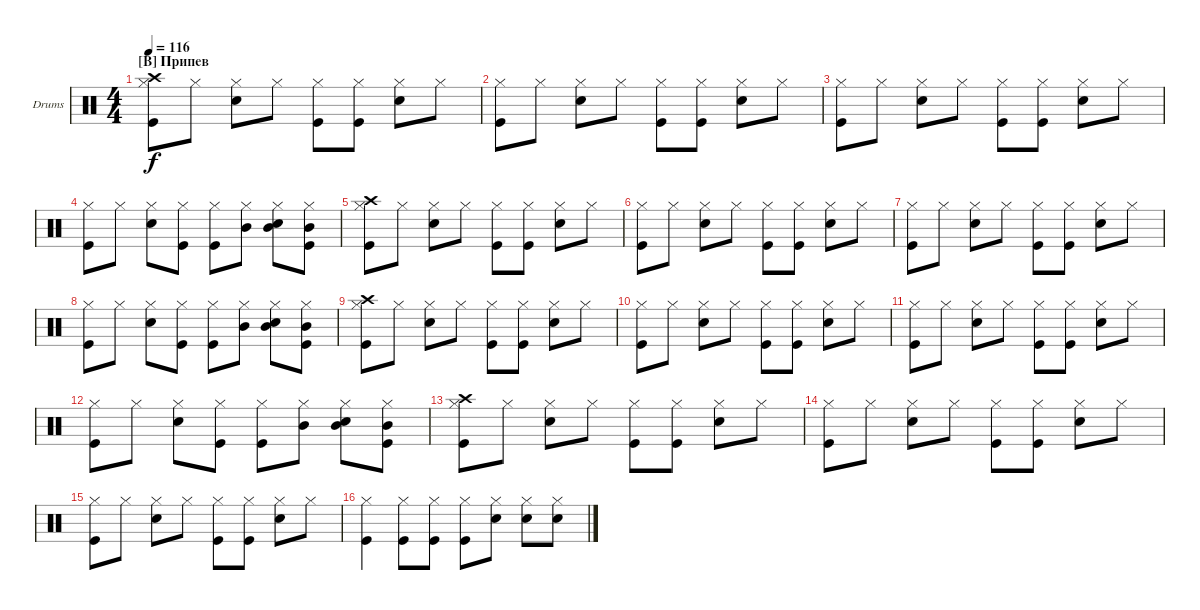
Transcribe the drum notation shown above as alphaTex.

\defaultSystemsLayout 4
\bracketExtendMode groupsimilarinstruments
\firstSystemTrackNameOrientation horizontal
\otherSystemsTrackNameOrientation horizontal
\track ("Drumkit" "Drums") {instrument percussion}
\staff {score}
\articulation defaults
\ts (4 4)
\section ("B" "Припев")
\tempo 116
\clef neutral
\ks c
("Hi-Hat (closed)" "Crash high (hit)" "Kick (hit)").8{dy f} "Hi-Hat (closed)".8 ("Hi-Hat (closed)" "Snare (hit) 2").8 "Hi-Hat (closed)".8 ("Hi-Hat (closed)" "Kick (hit)").8 ("Hi-Hat (closed)" "Kick (hit)").8 ("Hi-Hat (closed)" "Snare (hit) 2").8 "Hi-Hat (closed)".8 |
("Hi-Hat (closed)" "Kick (hit)").8 "Hi-Hat (closed)".8 ("Hi-Hat (closed)" "Snare (hit) 2").8 "Hi-Hat (closed)".8 ("Hi-Hat (closed)" "Kick (hit)").8 ("Hi-Hat (closed)" "Kick (hit)").8 ("Hi-Hat (closed)" "Snare (hit) 2").8 "Hi-Hat (closed)".8 |
("Hi-Hat (closed)" "Kick (hit)").8 "Hi-Hat (closed)".8 ("Hi-Hat (closed)" "Snare (hit) 2").8 "Hi-Hat (closed)".8 ("Hi-Hat (closed)" "Kick (hit)").8 ("Hi-Hat (closed)" "Kick (hit)").8 ("Hi-Hat (closed)" "Snare (hit) 2").8 "Hi-Hat (closed)".8 |
("Hi-Hat (closed)" "Kick (hit)").8 "Hi-Hat (closed)".8 ("Hi-Hat (closed)" "Snare (hit) 2").8 ("Hi-Hat (closed)" "Kick (hit)").8 ("Hi-Hat (closed)" "Kick (hit)").8 ("Hi-Hat (closed)" "Mid Tom (hit)").8 ("Hi-Hat (closed)" "Snare (hit) 2" "Mid Tom (hit)").8 ("Hi-Hat (closed)" "Kick (hit)" "Mid Tom (hit)").8 |
("Hi-Hat (closed)" "Crash high (hit)" "Kick (hit)").8 "Hi-Hat (closed)".8 ("Hi-Hat (closed)" "Snare (hit) 2").8 "Hi-Hat (closed)".8 ("Hi-Hat (closed)" "Kick (hit)").8 ("Hi-Hat (closed)" "Kick (hit)").8 ("Hi-Hat (closed)" "Snare (hit) 2").8 "Hi-Hat (closed)".8 |
("Hi-Hat (closed)" "Kick (hit)").8 "Hi-Hat (closed)".8 ("Hi-Hat (closed)" "Snare (hit) 2").8 "Hi-Hat (closed)".8 ("Hi-Hat (closed)" "Kick (hit)").8 ("Hi-Hat (closed)" "Kick (hit)").8 ("Hi-Hat (closed)" "Snare (hit) 2").8 "Hi-Hat (closed)".8 |
("Hi-Hat (closed)" "Kick (hit)").8 "Hi-Hat (closed)".8 ("Hi-Hat (closed)" "Snare (hit) 2").8 "Hi-Hat (closed)".8 ("Hi-Hat (closed)" "Kick (hit)").8 ("Hi-Hat (closed)" "Kick (hit)").8 ("Hi-Hat (closed)" "Snare (hit) 2").8 "Hi-Hat (closed)".8 |
("Hi-Hat (closed)" "Kick (hit)").8 "Hi-Hat (closed)".8 ("Hi-Hat (closed)" "Snare (hit) 2").8 ("Hi-Hat (closed)" "Kick (hit)").8 ("Hi-Hat (closed)" "Kick (hit)").8 ("Hi-Hat (closed)" "Mid Tom (hit)").8 ("Hi-Hat (closed)" "Snare (hit) 2" "Mid Tom (hit)").8 ("Hi-Hat (closed)" "Kick (hit)" "Mid Tom (hit)").8 |
("Hi-Hat (closed)" "Crash high (hit)" "Kick (hit)").8 "Hi-Hat (closed)".8 ("Hi-Hat (closed)" "Snare (hit) 2").8 "Hi-Hat (closed)".8 ("Hi-Hat (closed)" "Kick (hit)").8 ("Hi-Hat (closed)" "Kick (hit)").8 ("Hi-Hat (closed)" "Snare (hit) 2").8 "Hi-Hat (closed)".8 |
("Hi-Hat (closed)" "Kick (hit)").8 "Hi-Hat (closed)".8 ("Hi-Hat (closed)" "Snare (hit) 2").8 "Hi-Hat (closed)".8 ("Hi-Hat (closed)" "Kick (hit)").8 ("Hi-Hat (closed)" "Kick (hit)").8 ("Hi-Hat (closed)" "Snare (hit) 2").8 "Hi-Hat (closed)".8 |
("Hi-Hat (closed)" "Kick (hit)").8 "Hi-Hat (closed)".8 ("Hi-Hat (closed)" "Snare (hit) 2").8 "Hi-Hat (closed)".8 ("Hi-Hat (closed)" "Kick (hit)").8 ("Hi-Hat (closed)" "Kick (hit)").8 ("Hi-Hat (closed)" "Snare (hit) 2").8 "Hi-Hat (closed)".8 |
("Hi-Hat (closed)" "Kick (hit)").8 "Hi-Hat (closed)".8 ("Hi-Hat (closed)" "Snare (hit) 2").8 ("Hi-Hat (closed)" "Kick (hit)").8 ("Hi-Hat (closed)" "Kick (hit)").8 ("Hi-Hat (closed)" "Mid Tom (hit)").8 ("Hi-Hat (closed)" "Snare (hit) 2" "Mid Tom (hit)").8 ("Hi-Hat (closed)" "Kick (hit)" "Mid Tom (hit)").8 |
("Hi-Hat (closed)" "Crash high (hit)" "Kick (hit)").8 "Hi-Hat (closed)".8 ("Hi-Hat (closed)" "Snare (hit) 2").8 "Hi-Hat (closed)".8 ("Hi-Hat (closed)" "Kick (hit)").8 ("Hi-Hat (closed)" "Kick (hit)").8 ("Hi-Hat (closed)" "Snare (hit) 2").8 "Hi-Hat (closed)".8 |
("Hi-Hat (closed)" "Kick (hit)").8 "Hi-Hat (closed)".8 ("Hi-Hat (closed)" "Snare (hit) 2").8 "Hi-Hat (closed)".8 ("Hi-Hat (closed)" "Kick (hit)").8 ("Hi-Hat (closed)" "Kick (hit)").8 ("Hi-Hat (closed)" "Snare (hit) 2").8 "Hi-Hat (closed)".8 |
("Hi-Hat (closed)" "Kick (hit)").8 "Hi-Hat (closed)".8 ("Hi-Hat (closed)" "Snare (hit) 2").8 "Hi-Hat (closed)".8 ("Hi-Hat (closed)" "Kick (hit)").8 ("Hi-Hat (closed)" "Kick (hit)").8 ("Hi-Hat (closed)" "Snare (hit) 2").8 "Hi-Hat (closed)".8 |
("Hi-Hat (closed)" "Kick (hit)").4 ("Hi-Hat (closed)" "Kick (hit)").8 ("Hi-Hat (closed)" "Kick (hit)").8 ("Hi-Hat (closed)" "Kick (hit)").8 ("Hi-Hat (closed)" "Snare (hit) 2").8 ("Hi-Hat (closed)" "Snare (hit) 2").8 ("Hi-Hat (closed)" "Snare (hit) 2").8
